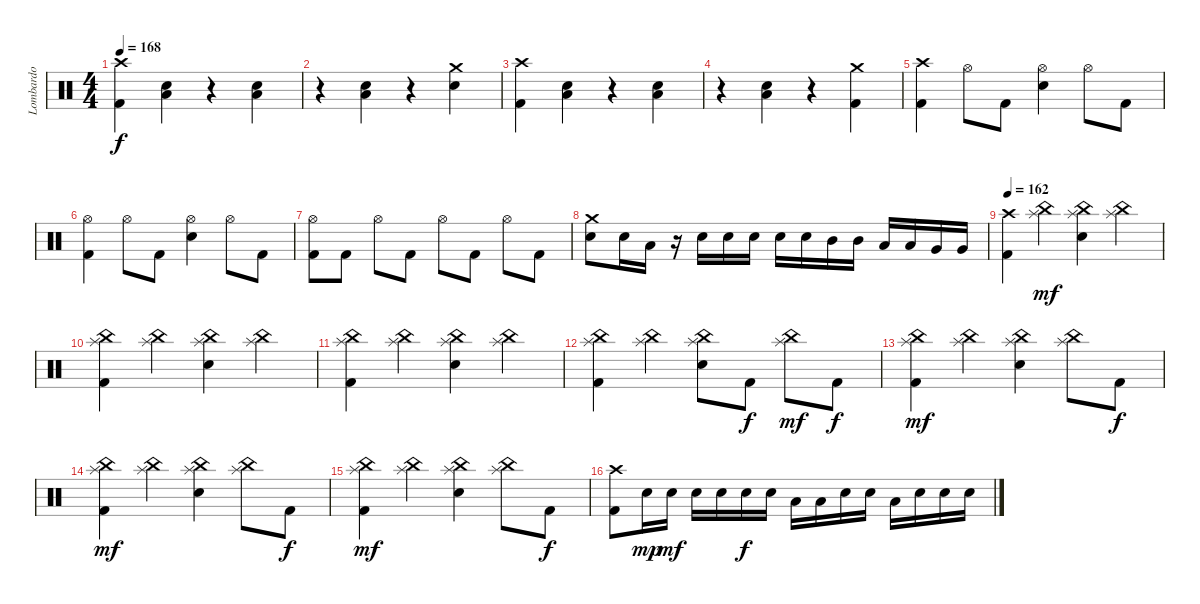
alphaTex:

\track ("Lombardo" "Lombardo") {instrument percussion}
\staff {score}
\articulation defaults
\ts (4 4)
\tempo 168
\clef neutral
\ks c
("Crash high (hit)" "Kick (hit) 2").4{dy f} ("Low Tom (hit)" "Electric Snare (hit)").4 r.4 ("Low Tom (hit)" "Electric Snare (hit)").4 |
r.4 ("Low Tom (hit)" "Electric Snare (hit)").4 r.4 ("Crash medium (hit)" "Electric Snare (hit)").4 |
("Crash high (hit)" "Kick (hit) 2").4 ("Low Tom (hit)" "Electric Snare (hit)").4 r.4 ("Low Tom (hit)" "Electric Snare (hit)").4 |
r.4 ("Low Tom (hit)" "Electric Snare (hit)").4 r.4 ("Crash medium (hit)" "Kick (hit) 2").4 |
("Crash high (hit)" "Kick (hit) 2").4 "Hi-Hat (open)".8 "Kick (hit) 2".8 ("Electric Snare (hit)" "Hi-Hat (open)").4 "Hi-Hat (open)".8 "Kick (hit) 2".8 |
("Kick (hit) 2" "Hi-Hat (open)").4 "Hi-Hat (open)".8 "Kick (hit) 2".8 ("Electric Snare (hit)" "Hi-Hat (open)").4 "Hi-Hat (open)".8 "Kick (hit) 2".8 |
("Kick (hit) 2" "Hi-Hat (open)").8 "Kick (hit) 2".8 "Hi-Hat (open)".8 "Kick (hit) 2".8 "Hi-Hat (open)".8 "Kick (hit) 2".8 "Hi-Hat (open)".8 "Kick (hit) 2".8 |
("Electric Snare (hit)" "Crash medium (hit)").8 "Electric Snare (hit)".16 "Low Tom (hit)".16 r.16 "Electric Snare (hit)".16 "Electric Snare (hit)".16 "Electric Snare (hit)".16 "Electric Snare (hit)".16 "Electric Snare (hit)".16 "Mid Tom (hit)".16 "Mid Tom (hit)".16 "Low Tom (hit)".16 "Low Tom (hit)".16 "Very Low Tom (hit)".16 "Very Low Tom (hit)".16 |
\tempo 162
("Crash high (hit)" "Kick (hit) 2").4 ("China (hit)" "Splash (hit)").4{dy mf} ("China (hit)" "Splash (hit)" "Electric Snare (hit)").4 ("China (hit)" "Splash (hit)").4 |
("China (hit)" "Splash (hit)" "Kick (hit) 2").4 ("China (hit)" "Splash (hit)").4 ("China (hit)" "Splash (hit)" "Electric Snare (hit)").4 ("China (hit)" "Splash (hit)").4 |
("China (hit)" "Splash (hit)" "Kick (hit) 2").4 ("China (hit)" "Splash (hit)").4 ("China (hit)" "Splash (hit)" "Electric Snare (hit)").4 ("China (hit)" "Splash (hit)").4 |
("China (hit)" "Splash (hit)" "Kick (hit) 2").4 ("China (hit)" "Splash (hit)").4 ("China (hit)" "Splash (hit)" "Electric Snare (hit)").8 "Kick (hit) 2".8{dy f} ("China (hit)" "Splash (hit)").8{dy mf} "Kick (hit) 2".8{dy f} |
("China (hit)" "Splash (hit)" "Kick (hit) 2").4{dy mf} ("China (hit)" "Splash (hit)").4 ("China (hit)" "Splash (hit)" "Electric Snare (hit)").4 ("China (hit)" "Splash (hit)").8 "Kick (hit) 2".8{dy f} |
("China (hit)" "Splash (hit)" "Kick (hit) 2").4{dy mf} ("China (hit)" "Splash (hit)").4 ("China (hit)" "Splash (hit)" "Electric Snare (hit)").4 ("China (hit)" "Splash (hit)").8 "Kick (hit) 2".8{dy f} |
("China (hit)" "Splash (hit)" "Kick (hit) 2").4{dy mf} ("China (hit)" "Splash (hit)").4 ("China (hit)" "Splash (hit)" "Electric Snare (hit)").4 ("China (hit)" "Splash (hit)").8 "Kick (hit) 2".8{dy f} |
("Crash high (hit)" "Kick (hit) 2").8 "Electric Snare (hit)".16{dy mp} "Electric Snare (hit)".16{dy mf} "Electric Snare (hit)".16 "Electric Snare (hit)".16 "Electric Snare (hit)".16{dy f} "Electric Snare (hit)".16 "Low Tom (hit)".16 "Low Tom (hit)".16 "Electric Snare (hit)".16 "Electric Snare (hit)".16 "Low Tom (hit)".16 "Electric Snare (hit)".16 "Electric Snare (hit)".16 "Electric Snare (hit)".16
